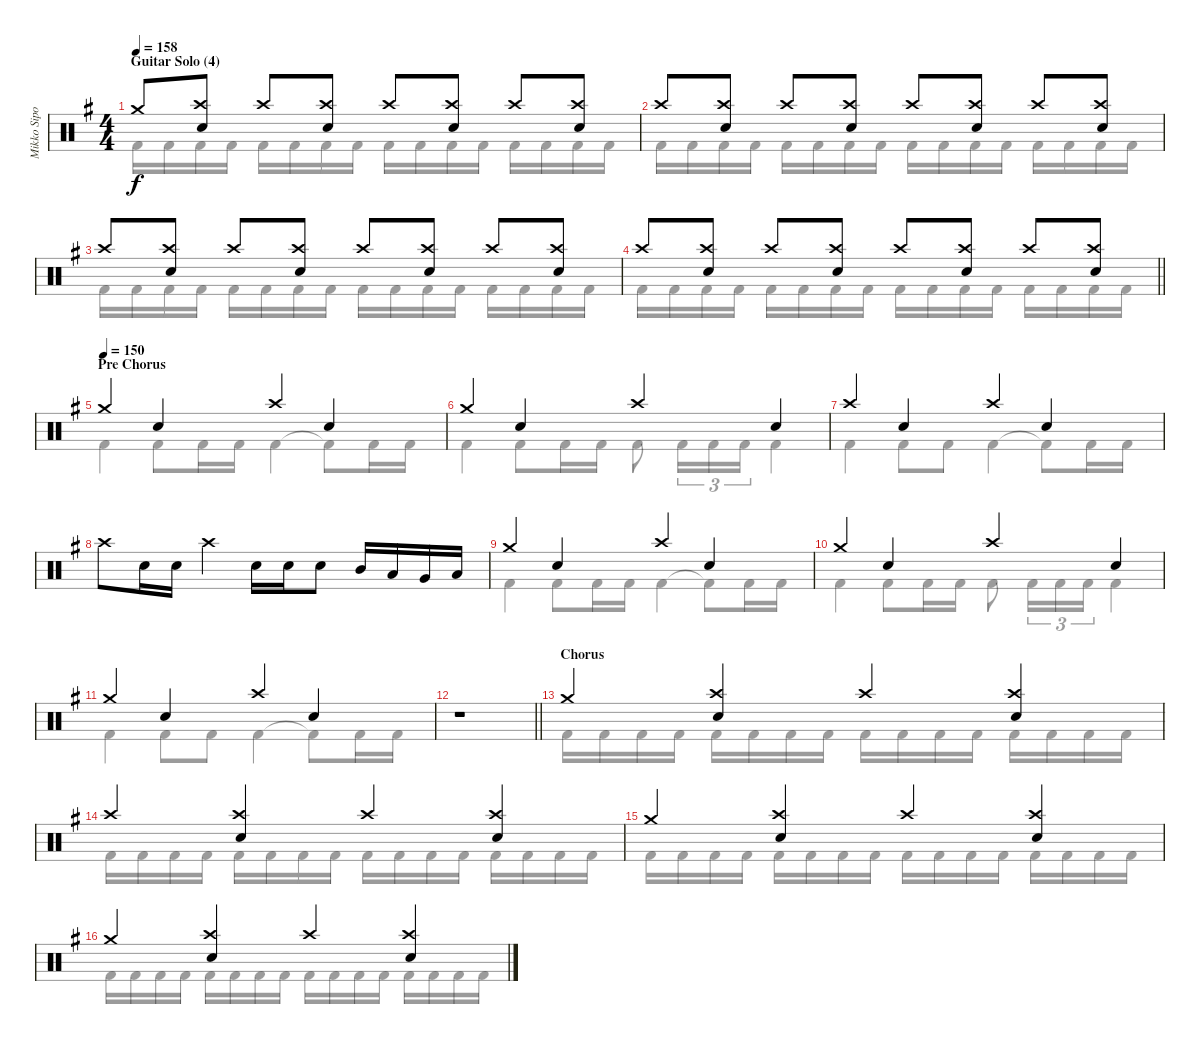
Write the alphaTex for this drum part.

\track ("Mikko Sipola (drums)" "Mikko Sipo") {instrument percussion}
\staff {score}
\articulation defaults
\voice
\ts (4 4)
\section ("" "Guitar Solo (4)")
\tempo 158
\clef neutral
\ks eminor "Crash medium (hit)".8{dy f}
("Crash high (hit)" "Electric Snare (hit)").8 "Crash high (hit)".8 ("Crash high (hit)" "Electric Snare (hit)").8 "Crash high (hit)".8 ("Crash high (hit)" "Electric Snare (hit)").8 "Crash high (hit)".8 ("Crash high (hit)" "Electric Snare (hit)").8 |
"Crash high (hit)".8 ("Crash high (hit)" "Electric Snare (hit)").8 "Crash high (hit)".8 ("Crash high (hit)" "Electric Snare (hit)").8 "Crash high (hit)".8 ("Crash high (hit)" "Electric Snare (hit)").8 "Crash high (hit)".8 ("Crash high (hit)" "Electric Snare (hit)").8 |
"Crash high (hit)".8 ("Crash high (hit)" "Electric Snare (hit)").8 "Crash high (hit)".8 ("Crash high (hit)" "Electric Snare (hit)").8 "Crash high (hit)".8 ("Crash high (hit)" "Electric Snare (hit)").8 "Crash high (hit)".8 ("Crash high (hit)" "Electric Snare (hit)").8 |
\barLineRight lightlight "Crash high (hit)".8
("Crash high (hit)" "Electric Snare (hit)").8 "Crash high (hit)".8 ("Crash high (hit)" "Electric Snare (hit)").8 "Crash high (hit)".8 ("Crash high (hit)" "Electric Snare (hit)").8 "Crash high (hit)".8 ("Crash high (hit)" "Electric Snare (hit)").8 |
\section ("" "Pre Chorus")
\tempo (150)
"Crash medium (hit)".4 "Electric Snare (hit)".4 "Crash high (hit)".4 "Electric Snare (hit)".4 |
"Crash medium (hit)".4 "Electric Snare (hit)".4 "Crash high (hit)".4 "Electric Snare (hit)".4 |
"Crash high (hit)".4 "Electric Snare (hit)".4 "Crash high (hit)".4 "Electric Snare (hit)".4 |
"Crash high (hit)".8 "Electric Snare (hit)".16 "Electric Snare (hit)".16 "Crash high (hit)".4 "Electric Snare (hit)".16 "Electric Snare (hit)".16 "Electric Snare (hit)".8 "Mid Tom (hit)".16 "Low Tom (hit)".16 "Very Low Tom (hit)".16 "Low Floor Tom (hit)".16 |
"Crash medium (hit)".4 "Electric Snare (hit)".4 "Crash high (hit)".4 "Electric Snare (hit)".4 |
"Crash medium (hit)".4 "Electric Snare (hit)".4 "Crash high (hit)".4 "Electric Snare (hit)".4 |
"Crash medium (hit)".4 "Electric Snare (hit)".4 "Crash high (hit)".4 "Electric Snare (hit)".4 |
\barLineRight lightlight
r.1 |
\section ("" "Chorus")
"Crash medium (hit)".4 ("Crash high (hit)" "Electric Snare (hit)").4 "Crash high (hit)".4 ("Crash high (hit)" "Electric Snare (hit)").4 |
"Crash high (hit)".4 ("Crash high (hit)" "Electric Snare (hit)").4 "Crash high (hit)".4 ("Crash high (hit)" "Electric Snare (hit)").4 |
"Crash medium (hit)".4 ("Crash high (hit)" "Electric Snare (hit)").4 "Crash high (hit)".4 ("Crash high (hit)" "Electric Snare (hit)").4 |
"Crash medium (hit)".4 ("Crash high (hit)" "Electric Snare (hit)").4 "Crash high (hit)".4 ("Crash high (hit)" "Electric Snare (hit)").4
\voice
\clef neutral
\ottava regular
\simile none
\ks eminor "Kick (hit) 2".16{dy f} "Kick (hit) 2".16 "Kick (hit) 2".16 "Kick (hit) 2".16 "Kick (hit) 2".16 "Kick (hit) 2".16 "Kick (hit) 2".16 "Kick (hit) 2".16 "Kick (hit) 2".16 "Kick (hit) 2".16 "Kick (hit) 2".16 "Kick (hit) 2".16 "Kick (hit) 2".16 "Kick (hit) 2".16 "Kick (hit) 2".16 "Kick (hit) 2".16
|
"Kick (hit) 2".16 "Kick (hit) 2".16 "Kick (hit) 2".16 "Kick (hit) 2".16 "Kick (hit) 2".16 "Kick (hit) 2".16 "Kick (hit) 2".16 "Kick (hit) 2".16 "Kick (hit) 2".16 "Kick (hit) 2".16 "Kick (hit) 2".16 "Kick (hit) 2".16 "Kick (hit) 2".16 "Kick (hit) 2".16 "Kick (hit) 2".16 "Kick (hit) 2".16 |
"Kick (hit) 2".16 "Kick (hit) 2".16 "Kick (hit) 2".16 "Kick (hit) 2".16 "Kick (hit) 2".16 "Kick (hit) 2".16 "Kick (hit) 2".16 "Kick (hit) 2".16 "Kick (hit) 2".16 "Kick (hit) 2".16 "Kick (hit) 2".16 "Kick (hit) 2".16 "Kick (hit) 2".16 "Kick (hit) 2".16 "Kick (hit) 2".16 "Kick (hit) 2".16 |
\barLineRight lightlight "Kick (hit) 2".16 "Kick (hit) 2".16 "Kick (hit) 2".16 "Kick (hit) 2".16 "Kick (hit) 2".16 "Kick (hit) 2".16 "Kick (hit) 2".16 "Kick (hit) 2".16 "Kick (hit) 2".16 "Kick (hit) 2".16 "Kick (hit) 2".16 "Kick (hit) 2".16 "Kick (hit) 2".16 "Kick (hit) 2".16 "Kick (hit) 2".16 "Kick (hit) 2".16
|
"Kick (hit) 2".4 "Kick (hit) 2".8 "Kick (hit) 2".16 "Kick (hit) 2".16 "Kick (hit) 2".4 "Kick (hit) 2"{t}.8 "Kick (hit) 2".16 "Kick (hit) 2".16 |
"Kick (hit) 2".4 "Kick (hit) 2".8 "Kick (hit) 2".16 "Kick (hit) 2".16 "Kick (hit) 2".8 "Kick (hit) 2".16{tu (3 2)} "Kick (hit) 2".16{tu (3 2)} "Kick (hit) 2".16{tu (3 2)} "Kick (hit) 2".4 |
"Kick (hit) 2".4 "Kick (hit) 2".8 "Kick (hit) 2".8 "Kick (hit) 2".4 "Kick (hit) 2"{t}.8 "Kick (hit) 2".16 "Kick (hit) 2".16 |
|
"Kick (hit) 2".4 "Kick (hit) 2".8 "Kick (hit) 2".16 "Kick (hit) 2".16 "Kick (hit) 2".4 "Kick (hit) 2"{t}.8 "Kick (hit) 2".16 "Kick (hit) 2".16 |
"Kick (hit) 2".4 "Kick (hit) 2".8 "Kick (hit) 2".16 "Kick (hit) 2".16 "Kick (hit) 2".8 "Kick (hit) 2".16{tu (3 2)} "Kick (hit) 2".16{tu (3 2)} "Kick (hit) 2".16{tu (3 2)} "Kick (hit) 2".4 |
"Kick (hit) 2".4 "Kick (hit) 2".8 "Kick (hit) 2".8 "Kick (hit) 2".4 "Kick (hit) 2"{t}.8 "Kick (hit) 2".16 "Kick (hit) 2".16 |
\barLineRight lightlight
|
"Kick (hit) 2".16 "Kick (hit) 2".16 "Kick (hit) 2".16 "Kick (hit) 2".16 "Kick (hit) 2".16 "Kick (hit) 2".16 "Kick (hit) 2".16 "Kick (hit) 2".16 "Kick (hit) 2".16 "Kick (hit) 2".16 "Kick (hit) 2".16 "Kick (hit) 2".16 "Kick (hit) 2".16 "Kick (hit) 2".16 "Kick (hit) 2".16 "Kick (hit) 2".16 |
"Kick (hit) 2".16 "Kick (hit) 2".16 "Kick (hit) 2".16 "Kick (hit) 2".16 "Kick (hit) 2".16 "Kick (hit) 2".16 "Kick (hit) 2".16 "Kick (hit) 2".16 "Kick (hit) 2".16 "Kick (hit) 2".16 "Kick (hit) 2".16 "Kick (hit) 2".16 "Kick (hit) 2".16 "Kick (hit) 2".16 "Kick (hit) 2".16 "Kick (hit) 2".16 |
"Kick (hit) 2".16 "Kick (hit) 2".16 "Kick (hit) 2".16 "Kick (hit) 2".16 "Kick (hit) 2".16 "Kick (hit) 2".16 "Kick (hit) 2".16 "Kick (hit) 2".16 "Kick (hit) 2".16 "Kick (hit) 2".16 "Kick (hit) 2".16 "Kick (hit) 2".16 "Kick (hit) 2".16 "Kick (hit) 2".16 "Kick (hit) 2".16 "Kick (hit) 2".16 |
"Kick (hit) 2".16 "Kick (hit) 2".16 "Kick (hit) 2".16 "Kick (hit) 2".16 "Kick (hit) 2".16 "Kick (hit) 2".16 "Kick (hit) 2".16 "Kick (hit) 2".16 "Kick (hit) 2".16 "Kick (hit) 2".16 "Kick (hit) 2".16 "Kick (hit) 2".16 "Kick (hit) 2".16 "Kick (hit) 2".16 "Kick (hit) 2".16 "Kick (hit) 2".16
